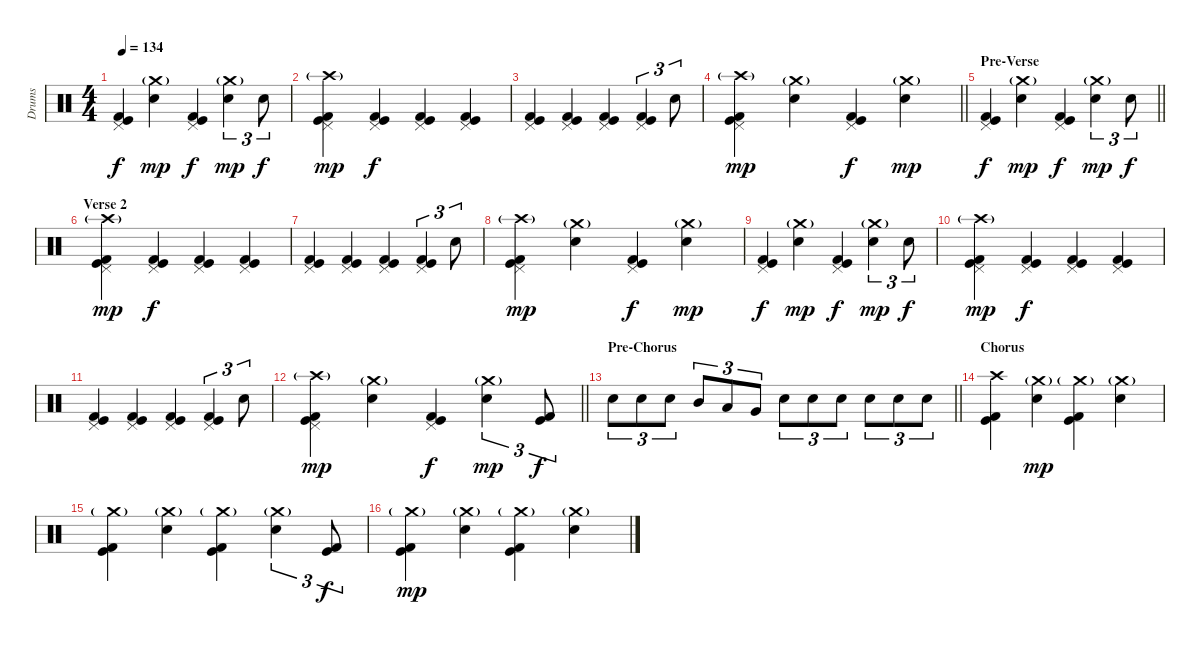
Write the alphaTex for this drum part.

\track ("Drums" "Drums") {instrument percussion}
\staff {score}
\articulation defaults
\ts (4 4)
\tempo 134
\clef neutral
\ks c
("Pedal Hi-Hat (hit)" "Kick (hit)" "Kick (hit) 2").4{dy f} ("Crash medium (hit)"{g} "Electric Snare (hit)").4{dy mp} ("Pedal Hi-Hat (hit)" "Kick (hit)" "Kick (hit) 2").4{dy f} ("Crash medium (hit)"{g} "Electric Snare (hit)").4{tu (3 2) dy mp} "Electric Snare (hit)".8{tu (3 2) dy f} |
("Pedal Hi-Hat (hit)" "Crash high (hit)"{g} "Kick (hit)" "Kick (hit) 2").4{dy mp} ("Pedal Hi-Hat (hit)" "Kick (hit)" "Kick (hit) 2").4{dy f} ("Pedal Hi-Hat (hit)" "Kick (hit)" "Kick (hit) 2").4 ("Pedal Hi-Hat (hit)" "Kick (hit)" "Kick (hit) 2").4 |
("Pedal Hi-Hat (hit)" "Kick (hit)" "Kick (hit) 2").4 ("Pedal Hi-Hat (hit)" "Kick (hit)" "Kick (hit) 2").4 ("Pedal Hi-Hat (hit)" "Kick (hit)" "Kick (hit) 2").4 ("Pedal Hi-Hat (hit)" "Kick (hit)" "Kick (hit) 2").4{tu (3 2)} "Electric Snare (hit)".8{tu (3 2)} |
\barLineRight lightlight
("Pedal Hi-Hat (hit)" "Crash high (hit)"{g} "Kick (hit)" "Kick (hit) 2").4{dy mp} ("Crash medium (hit)"{g} "Electric Snare (hit)").4 ("Pedal Hi-Hat (hit)" "Kick (hit)" "Kick (hit) 2").4{dy f} ("Crash medium (hit)"{g} "Electric Snare (hit)").4{dy mp} |
\section ("" "Pre-Verse")
\barLineRight lightlight
("Pedal Hi-Hat (hit)" "Kick (hit)" "Kick (hit) 2").4{dy f} ("Crash medium (hit)"{g} "Electric Snare (hit)").4{dy mp} ("Pedal Hi-Hat (hit)" "Kick (hit)" "Kick (hit) 2").4{dy f} ("Crash medium (hit)"{g} "Electric Snare (hit)").4{tu (3 2) dy mp} "Electric Snare (hit)".8{tu (3 2) dy f} |
\section ("" "Verse 2")
("Pedal Hi-Hat (hit)" "Crash high (hit)"{g} "Kick (hit)" "Kick (hit) 2").4{dy mp} ("Pedal Hi-Hat (hit)" "Kick (hit)" "Kick (hit) 2").4{dy f} ("Pedal Hi-Hat (hit)" "Kick (hit)" "Kick (hit) 2").4 ("Pedal Hi-Hat (hit)" "Kick (hit)" "Kick (hit) 2").4 |
("Pedal Hi-Hat (hit)" "Kick (hit)" "Kick (hit) 2").4 ("Pedal Hi-Hat (hit)" "Kick (hit)" "Kick (hit) 2").4 ("Pedal Hi-Hat (hit)" "Kick (hit)" "Kick (hit) 2").4 ("Pedal Hi-Hat (hit)" "Kick (hit)" "Kick (hit) 2").4{tu (3 2)} "Electric Snare (hit)".8{tu (3 2)} |
("Pedal Hi-Hat (hit)" "Crash high (hit)"{g} "Kick (hit)" "Kick (hit) 2").4{dy mp} ("Crash medium (hit)"{g} "Electric Snare (hit)").4 ("Pedal Hi-Hat (hit)" "Kick (hit)" "Kick (hit) 2").4{dy f} ("Crash medium (hit)"{g} "Electric Snare (hit)").4{dy mp} |
("Pedal Hi-Hat (hit)" "Kick (hit)" "Kick (hit) 2").4{dy f} ("Crash medium (hit)"{g} "Electric Snare (hit)").4{dy mp} ("Pedal Hi-Hat (hit)" "Kick (hit)" "Kick (hit) 2").4{dy f} ("Crash medium (hit)"{g} "Electric Snare (hit)").4{tu (3 2) dy mp} "Electric Snare (hit)".8{tu (3 2) dy f} |
("Pedal Hi-Hat (hit)" "Crash high (hit)"{g} "Kick (hit)" "Kick (hit) 2").4{dy mp} ("Pedal Hi-Hat (hit)" "Kick (hit)" "Kick (hit) 2").4{dy f} ("Pedal Hi-Hat (hit)" "Kick (hit)" "Kick (hit) 2").4 ("Pedal Hi-Hat (hit)" "Kick (hit)" "Kick (hit) 2").4 |
("Pedal Hi-Hat (hit)" "Kick (hit)" "Kick (hit) 2").4 ("Pedal Hi-Hat (hit)" "Kick (hit)" "Kick (hit) 2").4 ("Pedal Hi-Hat (hit)" "Kick (hit)" "Kick (hit) 2").4 ("Pedal Hi-Hat (hit)" "Kick (hit)" "Kick (hit) 2").4{tu (3 2)} "Electric Snare (hit)".8{tu (3 2)} |
\barLineRight lightlight
("Pedal Hi-Hat (hit)" "Crash high (hit)"{g} "Kick (hit)" "Kick (hit) 2").4{dy mp} ("Crash medium (hit)"{g} "Electric Snare (hit)").4 ("Pedal Hi-Hat (hit)" "Kick (hit)" "Kick (hit) 2").4{dy f} ("Crash medium (hit)"{g} "Electric Snare (hit)").4{tu (3 2) dy mp} ("Kick (hit)" "Kick (hit) 2").8{tu (3 2) dy f} |
\section ("" "Pre-Chorus")
\barLineRight lightlight "Electric Snare (hit)".8{tu (3 2)} "Electric Snare (hit)".8{tu (3 2)} "Electric Snare (hit)".8{tu (3 2)} "Mid Tom (hit)".8{tu (3 2)} "Low Tom (hit)".8{tu (3 2)} "Very Low Tom (hit)".8{tu (3 2)} "Electric Snare (hit)".8{tu (3 2)} "Electric Snare (hit)".8{tu (3 2)} "Electric Snare (hit)".8{tu (3 2)} "Electric Snare (hit)".8{tu (3 2)} "Electric Snare (hit)".8{tu (3 2)} "Electric Snare (hit)".8{tu (3 2)}
|
\section ("" "Chorus")
("Crash high (hit)" "Kick (hit)" "Kick (hit) 2").4 ("Crash medium (hit)"{g} "Electric Snare (hit)").4{dy mp} ("Crash medium (hit)"{g} "Kick (hit)" "Kick (hit) 2").4 ("Crash medium (hit)"{g} "Electric Snare (hit)").4 |
("Crash medium (hit)"{g} "Kick (hit)" "Kick (hit) 2").4 ("Crash medium (hit)"{g} "Electric Snare (hit)").4 ("Crash medium (hit)"{g} "Kick (hit)" "Kick (hit) 2").4 ("Crash medium (hit)"{g} "Electric Snare (hit)").4{tu (3 2)} ("Kick (hit)" "Kick (hit) 2").8{tu (3 2) dy f} |
("Crash medium (hit)"{g} "Kick (hit)" "Kick (hit) 2").4{dy mp} ("Crash medium (hit)"{g} "Electric Snare (hit)").4 ("Crash medium (hit)"{g} "Kick (hit)" "Kick (hit) 2").4 ("Crash medium (hit)"{g} "Electric Snare (hit)").4
